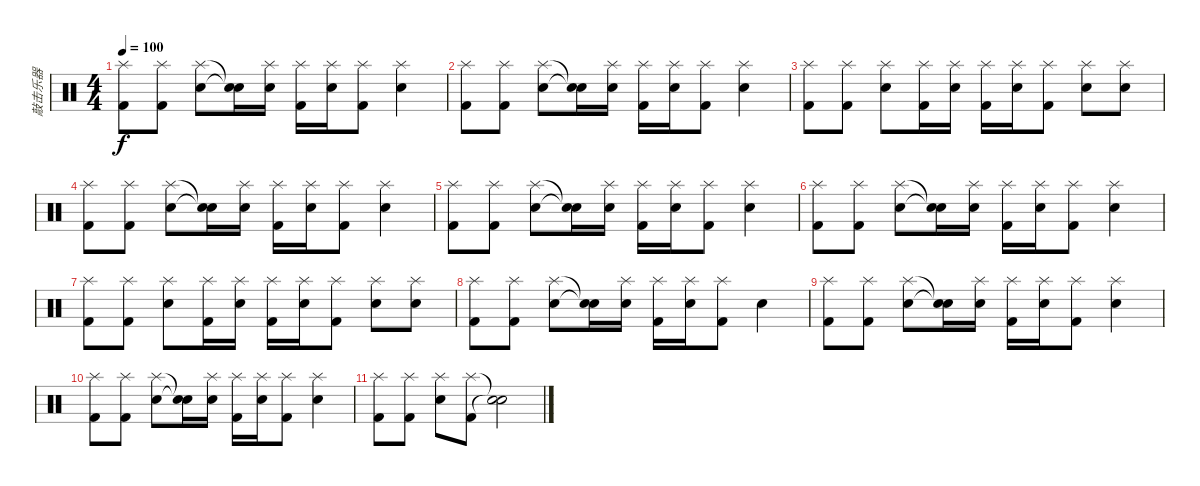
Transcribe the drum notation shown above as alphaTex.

\track ("敲击乐器" "敲击乐器") {instrument percussion}
\staff {score}
\articulation defaults
\ts (4 4)
\tempo 100
\clef neutral
\ks c
("Kick (hit) 2" "Splash (hit)").8{dy f} ("Kick (hit) 2" "Splash (hit)").8 ("Electric Snare (hit)" "Splash (hit)").8 ("Snare (hit)"{t} "Snare (hit)"{t}).16 ("Electric Snare (hit)" "Splash (hit)").16 ("Kick (hit) 2" "Splash (hit)").16 ("Electric Snare (hit)" "Splash (hit)").16 ("Kick (hit) 2" "Splash (hit)").8 ("Electric Snare (hit)" "Splash (hit)").4 |
("Kick (hit) 2" "Splash (hit)").8 ("Kick (hit) 2" "Splash (hit)").8 ("Electric Snare (hit)" "Splash (hit)").8 ("Snare (hit)"{t} "Snare (hit)"{t}).16 ("Electric Snare (hit)" "Splash (hit)").16 ("Kick (hit) 2" "Splash (hit)").16 ("Electric Snare (hit)" "Splash (hit)").16 ("Kick (hit) 2" "Splash (hit)").8 ("Electric Snare (hit)" "Splash (hit)").4 |
("Kick (hit) 2" "Splash (hit)").8 ("Kick (hit) 2" "Splash (hit)").8 ("Electric Snare (hit)" "Splash (hit)").8 ("Kick (hit) 2" "Splash (hit)").16 ("Electric Snare (hit)" "Splash (hit)").16 ("Kick (hit) 2" "Splash (hit)").16 ("Electric Snare (hit)" "Splash (hit)").16 ("Kick (hit) 2" "Splash (hit)").8 ("Electric Snare (hit)" "Splash (hit)").8 ("Electric Snare (hit)" "Splash (hit)").8 |
("Kick (hit) 2" "Splash (hit)").8 ("Kick (hit) 2" "Splash (hit)").8 ("Electric Snare (hit)" "Splash (hit)").8 ("Snare (hit)"{t} "Snare (hit)"{t}).16 ("Electric Snare (hit)" "Splash (hit)").16 ("Kick (hit) 2" "Splash (hit)").16 ("Electric Snare (hit)" "Splash (hit)").16 ("Kick (hit) 2" "Splash (hit)").8 ("Electric Snare (hit)" "Splash (hit)").4 |
("Kick (hit) 2" "Splash (hit)").8 ("Kick (hit) 2" "Splash (hit)").8 ("Electric Snare (hit)" "Splash (hit)").8 ("Snare (hit)"{t} "Snare (hit)"{t}).16 ("Electric Snare (hit)" "Splash (hit)").16 ("Kick (hit) 2" "Splash (hit)").16 ("Electric Snare (hit)" "Splash (hit)").16 ("Kick (hit) 2" "Splash (hit)").8 ("Electric Snare (hit)" "Splash (hit)").4 |
("Kick (hit) 2" "Splash (hit)").8 ("Kick (hit) 2" "Splash (hit)").8 ("Electric Snare (hit)" "Splash (hit)").8 ("Snare (hit)"{t} "Snare (hit)"{t}).16 ("Electric Snare (hit)" "Splash (hit)").16 ("Kick (hit) 2" "Splash (hit)").16 ("Electric Snare (hit)" "Splash (hit)").16 ("Kick (hit) 2" "Splash (hit)").8 ("Electric Snare (hit)" "Splash (hit)").4 |
("Kick (hit) 2" "Splash (hit)").8 ("Kick (hit) 2" "Splash (hit)").8 ("Electric Snare (hit)" "Splash (hit)").8 ("Kick (hit) 2" "Splash (hit)").16 ("Electric Snare (hit)" "Splash (hit)").16 ("Kick (hit) 2" "Splash (hit)").16 ("Electric Snare (hit)" "Splash (hit)").16 ("Kick (hit) 2" "Splash (hit)").8 ("Electric Snare (hit)" "Splash (hit)").8 ("Electric Snare (hit)" "Splash (hit)").8 |
("Kick (hit) 2" "Splash (hit)").8 ("Kick (hit) 2" "Splash (hit)").8 ("Electric Snare (hit)" "Splash (hit)").8 ("Snare (hit)"{t} "Snare (hit)"{t}).16 ("Electric Snare (hit)" "Splash (hit)").16 ("Kick (hit) 2" "Splash (hit)").16 ("Electric Snare (hit)" "Splash (hit)").16 ("Kick (hit) 2" "Splash (hit)").8 "Electric Snare (hit)".4 |
("Kick (hit) 2" "Splash (hit)").8 ("Kick (hit) 2" "Splash (hit)").8 ("Electric Snare (hit)" "Splash (hit)").8 ("Snare (hit)"{t} "Snare (hit)"{t}).16 ("Electric Snare (hit)" "Splash (hit)").16 ("Kick (hit) 2" "Splash (hit)").16 ("Electric Snare (hit)" "Splash (hit)").16 ("Kick (hit) 2" "Splash (hit)").8 ("Electric Snare (hit)" "Splash (hit)").4 |
("Kick (hit) 2" "Splash (hit)").8 ("Kick (hit) 2" "Splash (hit)").8 ("Electric Snare (hit)" "Splash (hit)").8 ("Snare (hit)"{t} "Snare (hit)"{t}).16 ("Electric Snare (hit)" "Splash (hit)").16 ("Kick (hit) 2" "Splash (hit)").16 ("Electric Snare (hit)" "Splash (hit)").16 ("Kick (hit) 2" "Splash (hit)").8 ("Electric Snare (hit)" "Splash (hit)").4 |
("Kick (hit) 2" "Splash (hit)").8 ("Kick (hit) 2" "Splash (hit)").8 ("Electric Snare (hit)" "Splash (hit)").8 ("Kick (hit) 2" "Splash (hit)").8 ("Snare (hit)"{t} "Snare (hit)"{t}).2
